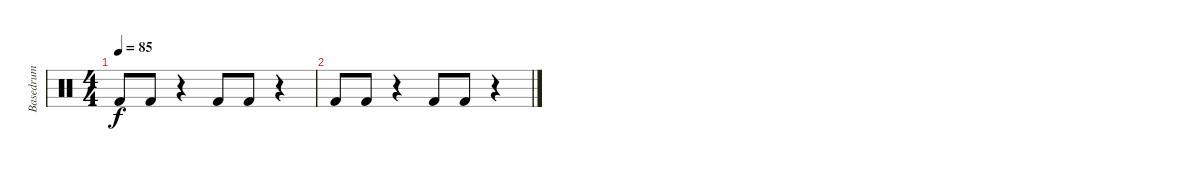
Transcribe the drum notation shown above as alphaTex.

\track ("Basedrum" "Basedrum") {instrument percussion}
\staff {score}
\articulation defaults
\ts (4 4)
\tempo 85
\clef neutral
\ks c "Kick (hit) 2".8{dy f volume 5} "Kick (hit) 2".8
r.4 "Kick (hit) 2".8 "Kick (hit) 2".8 r.4 |
"Kick (hit) 2".8{volume 0} "Kick (hit) 2".8 r.4 "Kick (hit) 2".8 "Kick (hit) 2".8 r.4
